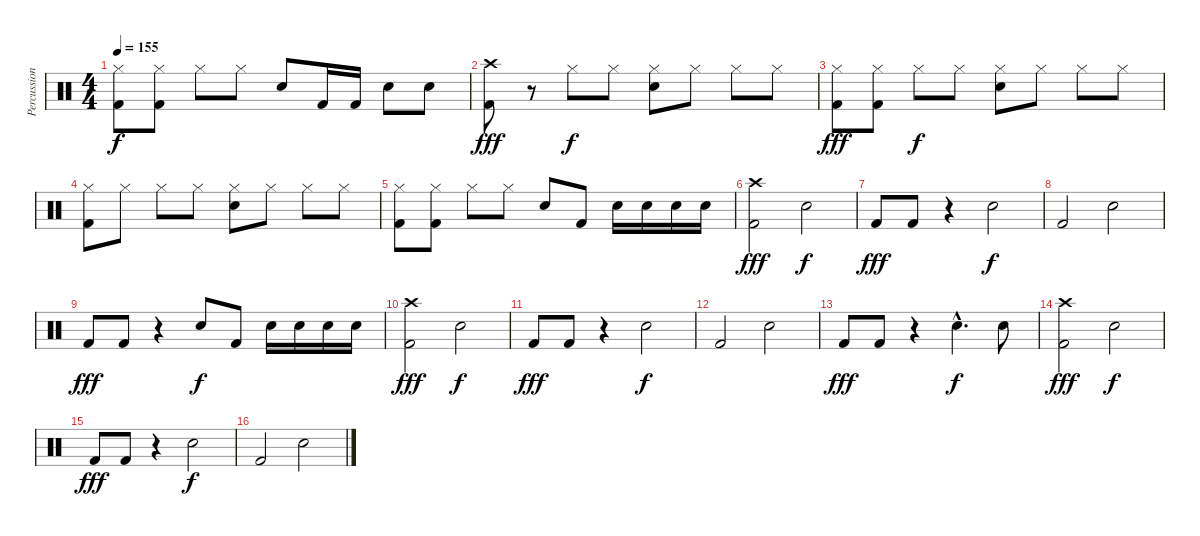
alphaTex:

\track ("Percussion" "Percussion") {instrument percussion}
\staff {score}
\articulation defaults
\ts (4 4)
\tempo 155
\clef neutral
\ks c
("Hi-Hat (closed)" "Kick (hit) 2").8{dy f} ("Hi-Hat (closed)" "Kick (hit) 2").8 "Hi-Hat (closed)".8 "Hi-Hat (closed)".8 "Snare (hit) 2".8 "Kick (hit) 2".16 "Kick (hit) 2".16 "Snare (hit) 2".8 "Snare (hit) 2".8 |
("Crash high (hit)" "Kick (hit) 2").8{dy fff} r.8 "Hi-Hat (closed)".8{dy f} "Hi-Hat (closed)".8 ("Hi-Hat (closed)" "Snare (hit) 2").8 "Hi-Hat (closed)".8 "Hi-Hat (closed)".8 "Hi-Hat (closed)".8 |
("Hi-Hat (closed)" "Kick (hit) 2").8{dy fff} ("Hi-Hat (closed)" "Kick (hit) 2").8 "Hi-Hat (closed)".8{dy f} "Hi-Hat (closed)".8 ("Hi-Hat (closed)" "Snare (hit) 2").8 "Hi-Hat (closed)".8 "Hi-Hat (closed)".8 "Hi-Hat (closed)".8 |
("Hi-Hat (closed)" "Kick (hit) 2").8 "Hi-Hat (closed)".8 "Hi-Hat (closed)".8 "Hi-Hat (closed)".8 ("Hi-Hat (closed)" "Snare (hit) 2").8 "Hi-Hat (closed)".8 "Hi-Hat (closed)".8 "Hi-Hat (closed)".8 |
("Hi-Hat (closed)" "Kick (hit) 2").8 ("Hi-Hat (closed)" "Kick (hit) 2").8 "Hi-Hat (closed)".8 "Hi-Hat (closed)".8 "Snare (hit) 2".8 "Kick (hit) 2".8 "Snare (hit) 2".16 "Snare (hit) 2".16 "Snare (hit) 2".16 "Snare (hit) 2".16 |
("Crash high (hit)" "Kick (hit) 2").2{dy fff} "Snare (hit) 2".2{dy f} |
"Kick (hit) 2".8{dy fff} "Kick (hit) 2".8 r.4 "Snare (hit) 2".2{dy f} |
"Kick (hit) 2".2 "Snare (hit) 2".2 |
"Kick (hit) 2".8{dy fff} "Kick (hit) 2".8 r.4 "Snare (hit) 2".8{dy f} "Kick (hit) 2".8 "Snare (hit) 2".16 "Snare (hit) 2".16 "Snare (hit) 2".16 "Snare (hit) 2".16 |
("Crash high (hit)" "Kick (hit) 2").2{dy fff} "Snare (hit) 2".2{dy f} |
"Kick (hit) 2".8{dy fff} "Kick (hit) 2".8 r.4 "Snare (hit) 2".2{dy f} |
"Kick (hit) 2".2 "Snare (hit) 2".2 |
"Kick (hit) 2".8{dy fff} "Kick (hit) 2".8 r.4 "Snare (hit) 2"{hac}.4{d dy f} "Electric Snare (hit)".8 |
("Crash high (hit)" "Kick (hit) 2").2{dy fff} "Snare (hit) 2".2{dy f} |
"Kick (hit) 2".8{dy fff} "Kick (hit) 2".8 r.4 "Snare (hit) 2".2{dy f} |
"Kick (hit) 2".2 "Snare (hit) 2".2
